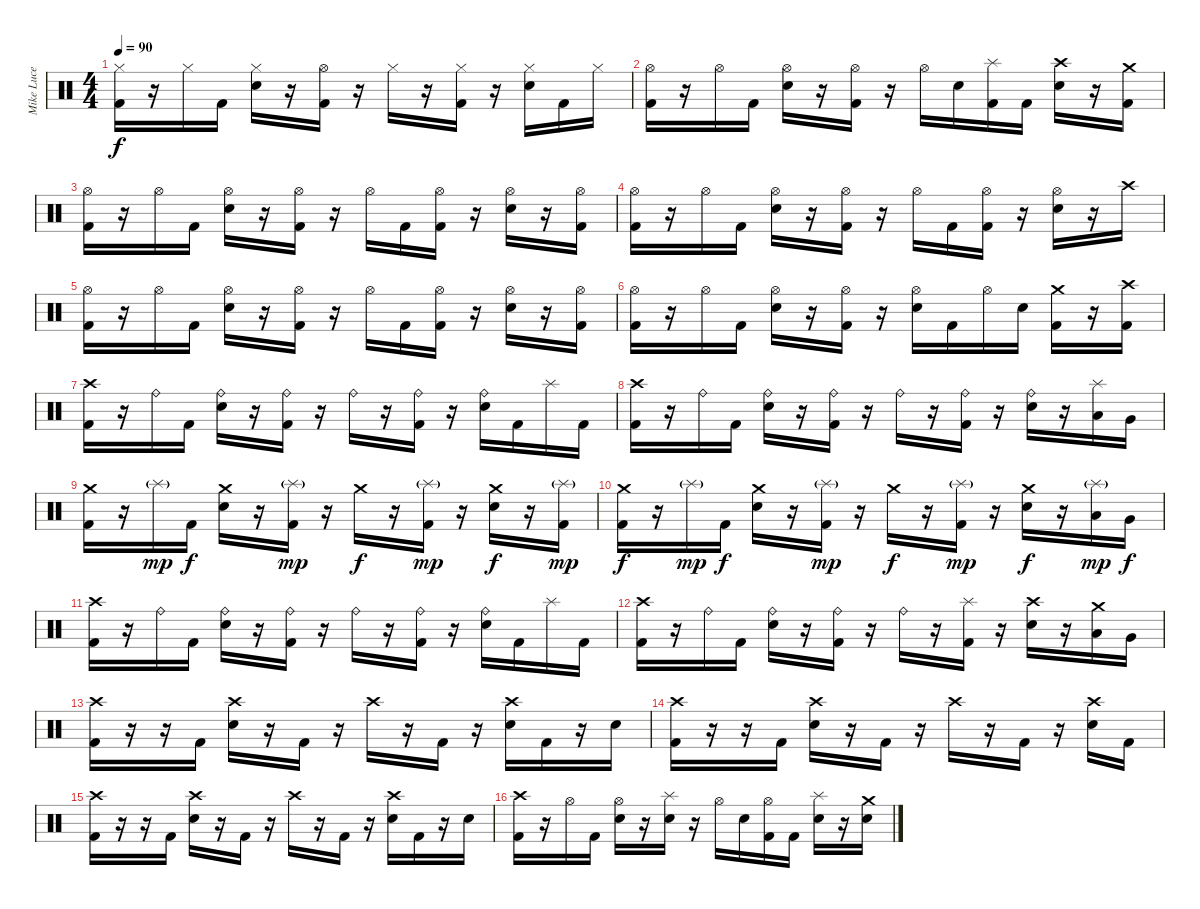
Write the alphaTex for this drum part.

\track ("Mike Luce" "Mike Luce") {instrument percussion}
\staff {score}
\articulation defaults
\ts (4 4)
\tempo 90
\clef neutral
\ks c
("Hi-Hat (closed)" "Kick (hit) 2").16{dy f} r.16 "Hi-Hat (closed)".16 "Kick (hit) 2".16 ("Hi-Hat (closed)" "Electric Snare (hit)").16 r.16 ("Hi-Hat (open)" "Kick (hit) 2").16 r.16 "Hi-Hat (closed)".16 r.16 ("Hi-Hat (closed)" "Kick (hit) 2").16 r.16 ("Hi-Hat (closed)" "Electric Snare (hit)").16 "Kick (hit) 2".16 "Hi-Hat (closed)".16 |
("Hi-Hat (open)" "Kick (hit) 2").16 r.16 "Hi-Hat (open)".16 "Kick (hit) 2".16 ("Hi-Hat (open)" "Electric Snare (hit)").16 r.16 ("Hi-Hat (open)" "Kick (hit) 2").16 r.16 "Hi-Hat (open)".16 "Electric Snare (hit)".16 ("Splash (hit)" "Kick (hit) 2").16 "Kick (hit) 2".16 ("Crash high (hit)" "Electric Snare (hit)").16 r.16 ("Crash medium (hit)" "Kick (hit) 2").16 |
("Hi-Hat (open)" "Kick (hit) 2").16 r.16 "Hi-Hat (open)".16 "Kick (hit) 2".16 ("Hi-Hat (open)" "Electric Snare (hit)").16 r.16 ("Hi-Hat (open)" "Kick (hit) 2").16 r.16 "Hi-Hat (open)".16 "Kick (hit) 2".16 ("Hi-Hat (open)" "Kick (hit) 2").16 r.16 ("Hi-Hat (open)" "Electric Snare (hit)").16 r.16 ("Hi-Hat (open)" "Kick (hit) 2").16 |
("Hi-Hat (open)" "Kick (hit) 2").16 r.16 "Hi-Hat (open)".16 "Kick (hit) 2".16 ("Hi-Hat (open)" "Electric Snare (hit)").16 r.16 ("Hi-Hat (open)" "Kick (hit) 2").16 r.16 "Hi-Hat (open)".16 "Kick (hit) 2".16 ("Hi-Hat (open)" "Kick (hit) 2").16 r.16 ("Hi-Hat (open)" "Electric Snare (hit)").16 r.16 "Crash high (hit)".16 |
("Hi-Hat (open)" "Kick (hit) 2").16 r.16 "Hi-Hat (open)".16 "Kick (hit) 2".16 ("Hi-Hat (open)" "Electric Snare (hit)").16 r.16 ("Hi-Hat (open)" "Kick (hit) 2").16 r.16 "Hi-Hat (open)".16 "Kick (hit) 2".16 ("Hi-Hat (open)" "Kick (hit) 2").16 r.16 ("Hi-Hat (open)" "Electric Snare (hit)").16 r.16 ("Hi-Hat (open)" "Kick (hit) 2").16 |
("Hi-Hat (open)" "Kick (hit) 2").16 r.16 "Hi-Hat (open)".16 "Kick (hit) 2".16 ("Hi-Hat (open)" "Electric Snare (hit)").16 r.16 ("Hi-Hat (open)" "Kick (hit) 2").16 r.16 ("Hi-Hat (open)" "Electric Snare (hit)").16 "Kick (hit) 2".16 "Hi-Hat (open)".16 "Electric Snare (hit)".16 ("Crash medium (hit)" "Kick (hit) 2").16 r.16 ("Crash high (hit)" "Kick (hit) 2").16 |
("Crash high (hit)" "Kick (hit) 2").16 r.16 "Ride (bell)".16 "Kick (hit) 2".16 ("Ride (bell)" "Electric Snare (hit)").16 r.16 ("Ride (bell)" "Kick (hit) 2").16 r.16 "Ride (bell)".16 r.16 ("Ride (bell)" "Kick (hit) 2").16 r.16 ("Ride (bell)" "Electric Snare (hit)").16 "Kick (hit) 2".16 "Splash (hit)".16 "Kick (hit) 2".16 |
("Crash high (hit)" "Kick (hit) 2").16 r.16 "Ride (bell)".16 "Kick (hit) 2".16 ("Ride (bell)" "Electric Snare (hit)").16 r.16 ("Ride (bell)" "Kick (hit) 2").16 r.16 "Ride (bell)".16 r.16 ("Ride (bell)" "Kick (hit) 2").16 r.16 ("Ride (bell)" "Electric Snare (hit)").16 r.16 ("Splash (hit)" "Low Tom (hit)").16 "Very Low Tom (hit)".16 |
("Crash medium (hit)" "Kick (hit) 2").16 r.16 "Splash (hit)"{g}.16{dy mp} "Kick (hit) 2".16{dy f} ("Crash medium (hit)" "Electric Snare (hit)").16 r.16 ("Splash (hit)"{g} "Kick (hit) 2").16{dy mp} r.16 "Crash medium (hit)".16{dy f} r.16 ("Splash (hit)"{g} "Kick (hit) 2").16{dy mp} r.16 ("Crash medium (hit)" "Electric Snare (hit)").16{dy f} r.16 ("Splash (hit)"{g} "Kick (hit) 2").16{dy mp} |
("Crash medium (hit)" "Kick (hit) 2").16{dy f} r.16 "Splash (hit)"{g}.16{dy mp} "Kick (hit) 2".16{dy f} ("Crash medium (hit)" "Electric Snare (hit)").16 r.16 ("Splash (hit)"{g} "Kick (hit) 2").16{dy mp} r.16 "Crash medium (hit)".16{dy f} r.16 ("Splash (hit)"{g} "Kick (hit) 2").16{dy mp} r.16 ("Crash medium (hit)" "Electric Snare (hit)").16{dy f} r.16 ("Splash (hit)"{g} "Low Tom (hit)").16{dy mp} "Very Low Tom (hit)".16{dy f} |
("Crash high (hit)" "Kick (hit) 2").16 r.16 "Ride (bell)".16 "Kick (hit) 2".16 ("Ride (bell)" "Electric Snare (hit)").16 r.16 ("Ride (bell)" "Kick (hit) 2").16 r.16 "Ride (bell)".16 r.16 ("Ride (bell)" "Kick (hit) 2").16 r.16 ("Ride (bell)" "Electric Snare (hit)").16 "Kick (hit) 2".16 "Splash (hit)".16 "Kick (hit) 2".16 |
("Crash high (hit)" "Kick (hit) 2").16 r.16 "Ride (bell)".16 "Kick (hit) 2".16 ("Ride (bell)" "Electric Snare (hit)").16 r.16 ("Ride (bell)" "Kick (hit) 2").16 r.16 "Ride (bell)".16 r.16 ("Splash (hit)" "Kick (hit) 2").16 r.16 ("Crash high (hit)" "Electric Snare (hit)").16 r.16 ("Crash medium (hit)" "Low Tom (hit)").16 "Very Low Tom (hit)".16 |
("Crash high (hit)" "Kick (hit) 2").16 r.16 r.16 "Kick (hit) 2".16 ("Crash high (hit)" "Electric Snare (hit)").16 r.16 "Kick (hit) 2".16 r.16 "Crash high (hit)".16 r.16 "Kick (hit) 2".16 r.16 ("Crash high (hit)" "Electric Snare (hit)").16 "Kick (hit) 2".16 r.16 "Electric Snare (hit)".16 |
("Crash high (hit)" "Kick (hit) 2").16 r.16 r.16 "Kick (hit) 2".16 ("Crash high (hit)" "Electric Snare (hit)").16 r.16 "Kick (hit) 2".16 r.16 "Crash high (hit)".16 r.16 "Kick (hit) 2".16 r.16 ("Crash high (hit)" "Electric Snare (hit)").16 "Kick (hit) 2".16 |
("Crash high (hit)" "Kick (hit) 2").16 r.16 r.16 "Kick (hit) 2".16 ("Crash high (hit)" "Electric Snare (hit)").16 r.16 "Kick (hit) 2".16 r.16 "Crash high (hit)".16 r.16 "Kick (hit) 2".16 r.16 ("Crash high (hit)" "Electric Snare (hit)").16 "Kick (hit) 2".16 r.16 "Electric Snare (hit)".16 |
("Crash high (hit)" "Kick (hit) 2").16 r.16 "Hi-Hat (open)".16 "Kick (hit) 2".16 ("Hi-Hat (open)" "Electric Snare (hit)").16 r.16 ("Splash (hit)" "Electric Snare (hit)").16 r.16 "Hi-Hat (open)".16 "Electric Snare (hit)".16 ("Hi-Hat (open)" "Kick (hit) 2").16 "Kick (hit) 2".16 ("Splash (hit)" "Electric Snare (hit)").16 r.16 ("Crash medium (hit)" "Electric Snare (hit)").16
